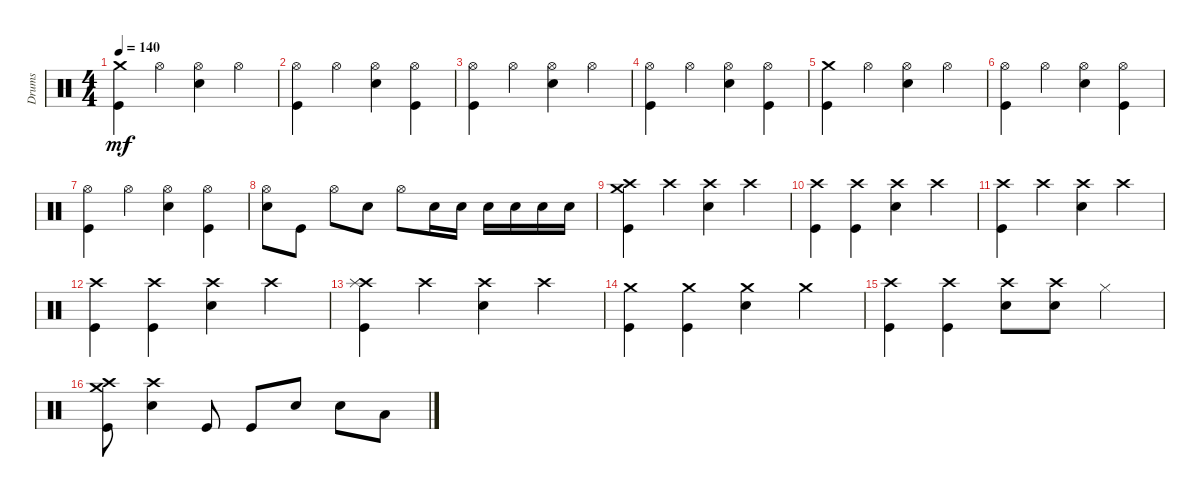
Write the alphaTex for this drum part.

\track ("Drums" "Drums") {instrument percussion}
\staff {score}
\articulation defaults
\ts (4 4)
\tempo 140
\clef neutral
\ks c
("Crash medium (hit)" "Kick (hit)").4{dy mf} "Hi-Hat (open)".4 ("Hi-Hat (open)" "Snare (hit) 2").4 "Hi-Hat (open)".4 |
("Kick (hit)" "Hi-Hat (open)").4 "Hi-Hat (open)".4 ("Hi-Hat (open)" "Snare (hit) 2").4 ("Hi-Hat (open)" "Kick (hit)").4 |
("Hi-Hat (open)" "Kick (hit)").4 "Hi-Hat (open)".4 ("Hi-Hat (open)" "Snare (hit) 2").4 "Hi-Hat (open)".4 |
("Hi-Hat (open)" "Kick (hit)").4 "Hi-Hat (open)".4 ("Hi-Hat (open)" "Snare (hit) 2").4 ("Hi-Hat (open)" "Kick (hit)").4 |
("Crash medium (hit)" "Kick (hit)").4 "Hi-Hat (open)".4 ("Hi-Hat (open)" "Snare (hit) 2").4 "Hi-Hat (open)".4 |
("Kick (hit)" "Hi-Hat (open)").4 "Hi-Hat (open)".4 ("Hi-Hat (open)" "Snare (hit) 2").4 ("Hi-Hat (open)" "Kick (hit)").4 |
("Hi-Hat (open)" "Kick (hit)").4 "Hi-Hat (open)".4 ("Hi-Hat (open)" "Snare (hit) 2").4 ("Hi-Hat (open)" "Kick (hit)").4 |
("Snare (hit) 2" "Hi-Hat (open)").8 "Kick (hit)".8 "Hi-Hat (open)".8 "Snare (hit) 2".8 "Hi-Hat (open)".8 "Snare (hit) 2".16 "Snare (hit) 2".16 "Snare (hit) 2".16 "Snare (hit) 2".16 "Snare (hit) 2".16 "Snare (hit) 2".16 |
("Crash medium (hit)" "Kick (hit)" "Crash high (hit)").4 "Crash high (hit)".4 ("Crash high (hit)" "Snare (hit) 2").4 "Crash high (hit)".4 |
("Crash high (hit)" "Kick (hit)").4 ("Crash high (hit)" "Kick (hit)").4 ("Crash high (hit)" "Snare (hit) 2").4 "Crash high (hit)".4 |
("Crash high (hit)" "Kick (hit)").4 "Crash high (hit)".4 ("Crash high (hit)" "Snare (hit) 2").4 "Crash high (hit)".4 |
("Crash high (hit)" "Kick (hit)").4 ("Crash high (hit)" "Kick (hit)").4 ("Crash high (hit)" "Snare (hit) 2").4 "Crash high (hit)".4 |
("Crash high (hit)" "Kick (hit)" "Splash (hit)").4 "Crash high (hit)".4 ("Crash high (hit)" "Snare (hit) 2").4 "Crash high (hit)".4 |
("Crash medium (hit)" "Kick (hit)").4 ("Crash medium (hit)" "Kick (hit)").4 ("Crash medium (hit)" "Snare (hit) 2").4 "Crash medium (hit)".4 |
("Crash high (hit)" "Kick (hit)").4 ("Crash high (hit)" "Kick (hit)").4 ("Crash high (hit)" "Snare (hit) 2").8 ("Crash high (hit)" "Snare (hit) 2").8 "Hi-Hat (closed)".4 |
("Kick (hit)" "Crash high (hit)" "Crash medium (hit)").8 ("Crash high (hit)" "Snare (hit) 2").4 "Kick (hit)".8 "Kick (hit)".8 "Snare (hit) 2".8 "Snare (hit) 2".8 "Low Tom (hit)".8
